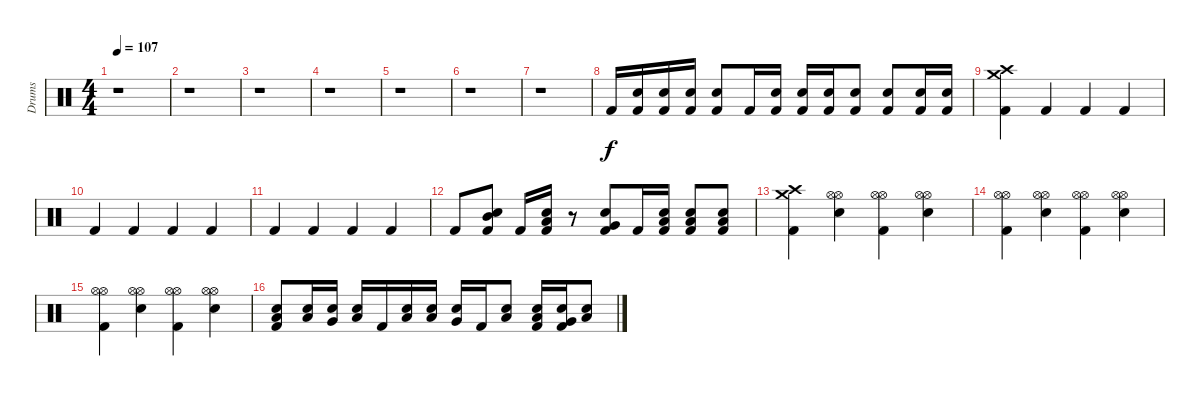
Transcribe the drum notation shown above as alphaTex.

\track ("Drums" "Drums") {instrument percussion}
\staff {score}
\articulation defaults
\ts (4 4)
\tempo 107
\clef neutral
\ks c
r.1{dy f} |
r.1 |
r.1 |
r.1 |
r.1 |
r.1 |
r.1 |
"Kick (hit) 2".16 ("Electric Snare (hit)" "Kick (hit) 2").16 ("Electric Snare (hit)" "Kick (hit) 2").16 ("Electric Snare (hit)" "Kick (hit) 2").16 ("Electric Snare (hit)" "Kick (hit) 2").8 "Kick (hit) 2".16 ("Electric Snare (hit)" "Kick (hit) 2").16 ("Electric Snare (hit)" "Kick (hit) 2").16 ("Electric Snare (hit)" "Kick (hit) 2").16 ("Electric Snare (hit)" "Kick (hit) 2").8 ("Electric Snare (hit)" "Kick (hit) 2").8 ("Electric Snare (hit)" "Kick (hit) 2").16 ("Electric Snare (hit)" "Kick (hit) 2").16 |
("Crash medium (hit)" "Crash high (hit)" "Kick (hit) 2").4 "Kick (hit) 2".4 "Kick (hit) 2".4 "Kick (hit) 2".4 |
"Kick (hit) 2".4 "Kick (hit) 2".4 "Kick (hit) 2".4 "Kick (hit) 2".4 |
"Kick (hit) 2".4 "Kick (hit) 2".4 "Kick (hit) 2".4 "Kick (hit) 2".4 |
"Kick (hit) 2".8 ("Electric Snare (hit)" "Mid Tom (hit)" "Kick (hit) 2").8 "Kick (hit) 2".16 ("Electric Snare (hit)" "Low Tom (hit)" "Kick (hit) 2").16 r.8 ("Electric Snare (hit)" "Very Low Tom (hit)" "Kick (hit) 2").8 "Kick (hit) 2".16 ("Electric Snare (hit)" "Low Floor Tom (hit)" "Kick (hit) 2").16 ("Electric Snare (hit)" "Low Floor Tom (hit)" "Kick (hit) 2").8 ("Electric Snare (hit)" "Low Floor Tom (hit)" "Kick (hit) 2").8 |
("Crash high (hit)" "Crash medium (hit)" "Kick (hit) 2").4 ("Hi-Hat (open)" "Hi-Hat (open)" "Electric Snare (hit)").4 ("Hi-Hat (open)" "Hi-Hat (open)" "Kick (hit) 2").4 ("Hi-Hat (open)" "Hi-Hat (open)" "Electric Snare (hit)").4 |
("Hi-Hat (open)" "Hi-Hat (open)" "Kick (hit) 2").4 ("Hi-Hat (open)" "Hi-Hat (open)" "Electric Snare (hit)").4 ("Hi-Hat (open)" "Hi-Hat (open)" "Kick (hit) 2").4 ("Hi-Hat (open)" "Hi-Hat (open)" "Electric Snare (hit)").4 |
("Hi-Hat (open)" "Hi-Hat (open)" "Kick (hit) 2").4 ("Hi-Hat (open)" "Hi-Hat (open)" "Electric Snare (hit)").4 ("Hi-Hat (open)" "Hi-Hat (open)" "Kick (hit) 2").4 ("Hi-Hat (open)" "Hi-Hat (open)" "Electric Snare (hit)").4 |
("Electric Snare (hit)" "Low Floor Tom (hit)" "Kick (hit) 2").8 ("Electric Snare (hit)" "Low Floor Tom (hit)").16 ("Electric Snare (hit)" "Very Low Tom (hit)").16 ("Electric Snare (hit)" "Low Tom (hit)").16 "Kick (hit) 2".16 ("Electric Snare (hit)" "Low Floor Tom (hit)").16 ("Electric Snare (hit)" "Low Tom (hit)").16 ("Electric Snare (hit)" "Very Low Tom (hit)").16 "Kick (hit) 2".16 ("Electric Snare (hit)" "Low Floor Tom (hit)").8 ("Electric Snare (hit)" "Low Floor Tom (hit)" "Kick (hit) 2").16 ("Electric Snare (hit)" "Very Low Tom (hit)" "Kick (hit) 2").16 ("Electric Snare (hit)" "Low Tom (hit)").8
